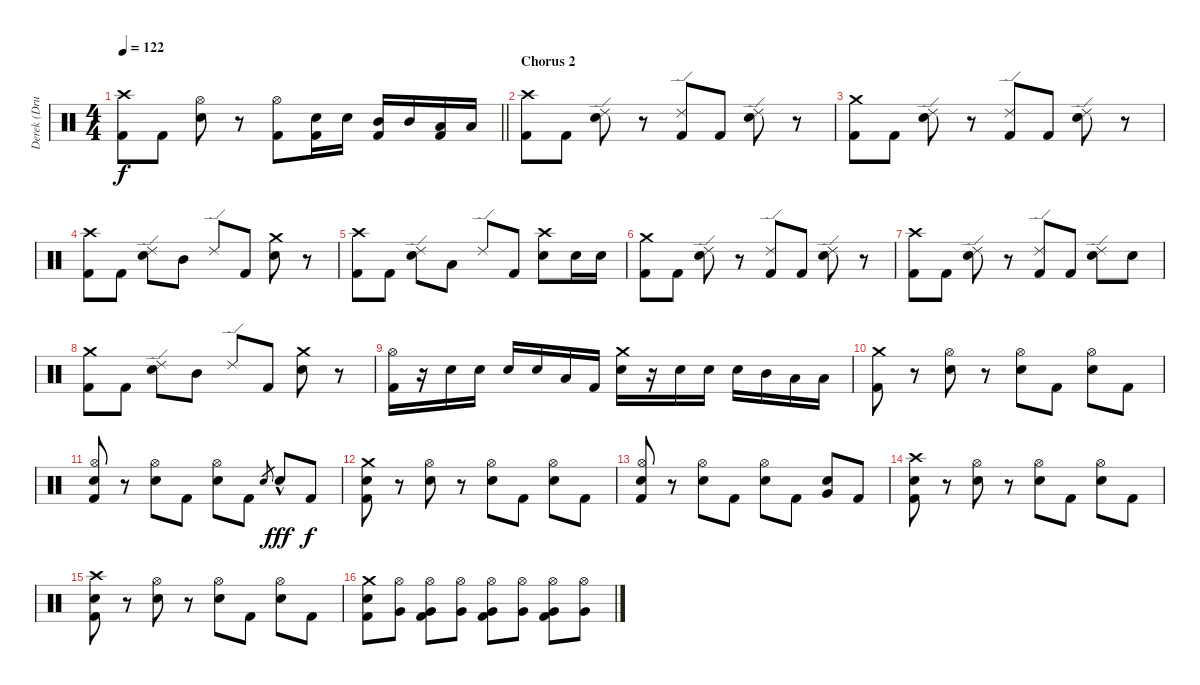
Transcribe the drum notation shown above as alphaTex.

\track ("Derek (Drums)" "Derek (Dru") {instrument percussion}
\staff {score}
\articulation defaults
\ts (4 4)
\tempo 122
\clef neutral
\barLineRight lightlight
\ks c
("Crash high (hit)" "Kick (hit) 2").8{dy f} "Kick (hit) 2".8 ("Hi-Hat (open)" "Electric Snare (hit)").8 r.8 ("Hi-Hat (open)" "Kick (hit) 2").8 ("Electric Snare (hit)" "Kick (hit) 2").16 "Electric Snare (hit)".16 ("Mid Tom (hit)" "Kick (hit) 2").16 "Mid Tom (hit)".16 ("Low Tom (hit)" "Kick (hit) 2").16 "Low Tom (hit)".16 |
\section ("" "Chorus 2")
("Crash high (hit)" "Kick (hit) 2").8 "Kick (hit) 2".8 ("Ride (edge) 2" "Electric Snare (hit)").8 r.8 ("Ride (edge) 2" "Kick (hit) 2").8 "Kick (hit) 2".8 ("Ride (edge) 2" "Electric Snare (hit)").8 r.8 |
("Crash medium (hit)" "Kick (hit) 2").8 "Kick (hit) 2".8 ("Ride (edge) 2" "Electric Snare (hit)").8 r.8 ("Ride (edge) 2" "Kick (hit) 2").8 "Kick (hit) 2".8 ("Ride (edge) 2" "Electric Snare (hit)").8 r.8 |
("Crash high (hit)" "Kick (hit) 2").8 "Kick (hit) 2".8 ("Ride (edge) 2" "Electric Snare (hit)").8 "Mid Tom (hit)".8 "Ride (edge) 2".8 "Kick (hit) 2".8 ("Crash medium (hit)" "Electric Snare (hit)").8 r.8 |
("Crash high (hit)" "Kick (hit) 2").8 "Kick (hit) 2".8 ("Ride (edge) 2" "Electric Snare (hit)").8 "Low Tom (hit)".8 "Ride (edge) 2".8 "Kick (hit) 2".8 ("Crash high (hit)" "Electric Snare (hit)").8 "Electric Snare (hit)".16 "Electric Snare (hit)".16 |
("Crash medium (hit)" "Kick (hit) 2").8 "Kick (hit) 2".8 ("Ride (edge) 2" "Electric Snare (hit)").8 r.8 ("Ride (edge) 2" "Kick (hit) 2").8 "Kick (hit) 2".8 ("Ride (edge) 2" "Electric Snare (hit)").8 r.8 |
("Crash high (hit)" "Kick (hit) 2").8 "Kick (hit) 2".8 ("Ride (edge) 2" "Electric Snare (hit)").8 r.8 ("Ride (edge) 2" "Kick (hit) 2").8 "Kick (hit) 2".8 ("Ride (edge) 2" "Electric Snare (hit)").8 "Electric Snare (hit)".8 |
("Crash medium (hit)" "Kick (hit) 2").8 "Kick (hit) 2".8 ("Ride (edge) 2" "Electric Snare (hit)").8 "Mid Tom (hit)".8 "Ride (edge) 2".8 "Kick (hit) 2".8 ("Crash medium (hit)" "Electric Snare (hit)").8 r.8 |
("Hi-Hat (open)" "Kick (hit) 2").16 r.16 "Electric Snare (hit)".16 "Electric Snare (hit)".16 "Electric Snare (hit)".16 "Electric Snare (hit)".16 "Low Tom (hit)".16 "Kick (hit) 2".16 ("Crash medium (hit)" "Electric Snare (hit)").16 r.16 "Electric Snare (hit)".16 "Electric Snare (hit)".16 "Electric Snare (hit)".16 "Mid Tom (hit)".16 "Low Tom (hit)".16 "Low Tom (hit)".16 |
("Crash medium (hit)" "Kick (hit) 2").8 r.8 ("Hi-Hat (open)" "Electric Snare (hit)").8 r.8 ("Hi-Hat (open)" "Electric Snare (hit)").8 "Kick (hit) 2".8 ("Hi-Hat (open)" "Electric Snare (hit)").8 "Kick (hit) 2".8 |
("Hi-Hat (open)" "Electric Snare (hit)" "Kick (hit) 2").8 r.8 ("Hi-Hat (open)" "Electric Snare (hit)").8 "Kick (hit) 2".8 ("Hi-Hat (open)" "Electric Snare (hit)").8 "Kick (hit) 2".8 "Electric Snare (hit)".8{gr} "Electric Snare (hit)"{hac}.8{dy fff} "Kick (hit) 2".8{dy f} |
("Crash medium (hit)" "Electric Snare (hit)" "Kick (hit) 2").8 r.8 ("Hi-Hat (open)" "Electric Snare (hit)").8 r.8 ("Hi-Hat (open)" "Electric Snare (hit)").8 "Kick (hit) 2".8 ("Hi-Hat (open)" "Electric Snare (hit)").8 "Kick (hit) 2".8 |
("Hi-Hat (open)" "Electric Snare (hit)" "Kick (hit) 2").8 r.8 ("Hi-Hat (open)" "Electric Snare (hit)").8 "Kick (hit) 2".8 ("Hi-Hat (open)" "Electric Snare (hit)").8 "Kick (hit) 2".8 ("Very Low Tom (hit)" "Electric Snare (hit)").8 "Kick (hit) 2".8 |
("Crash high (hit)" "Electric Snare (hit)" "Kick (hit) 2").8 r.8 ("Hi-Hat (open)" "Electric Snare (hit)").8 r.8 ("Hi-Hat (open)" "Electric Snare (hit)").8 "Kick (hit) 2".8 ("Hi-Hat (open)" "Electric Snare (hit)").8 "Kick (hit) 2".8 |
("Crash high (hit)" "Electric Snare (hit)" "Kick (hit) 2").8 r.8 ("Hi-Hat (open)" "Electric Snare (hit)").8 r.8 ("Hi-Hat (open)" "Electric Snare (hit)").8 "Kick (hit) 2".8 ("Hi-Hat (open)" "Electric Snare (hit)").8 "Kick (hit) 2".8 |
("Crash medium (hit)" "Electric Snare (hit)" "Kick (hit) 2").8 ("Hi-Hat (open)" "Very Low Tom (hit)").8 ("Hi-Hat (open)" "Very Low Tom (hit)" "Kick (hit) 2").8 ("Hi-Hat (open)" "Very Low Tom (hit)").8 ("Hi-Hat (open)" "Very Low Tom (hit)" "Kick (hit) 2").8 ("Hi-Hat (open)" "Very Low Tom (hit)").8 ("Hi-Hat (open)" "Very Low Tom (hit)" "Kick (hit) 2").8 ("Hi-Hat (open)" "Very Low Tom (hit)").8
